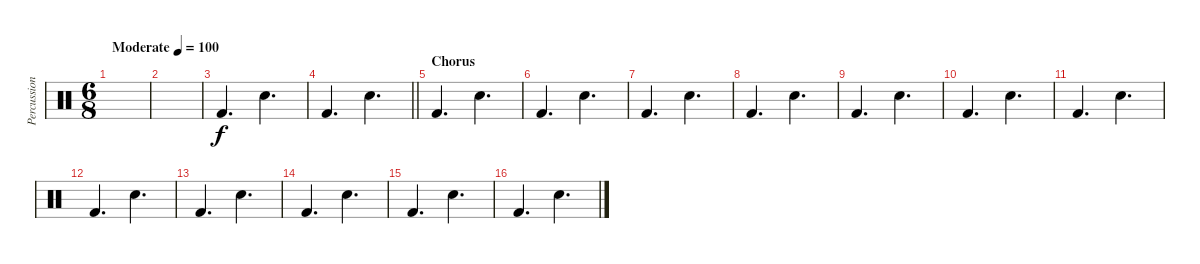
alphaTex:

\track ("Percussion" "Percussion") {instrument percussion}
\staff {score}
\articulation defaults
\ts (6 8)
\tempo (100 "Moderate")
\clef neutral
\ks c
|
|
"Kick (hit) 2".4{d} "Snare (hit) 2".4{d} |
\barLineRight lightlight "Kick (hit) 2".4{d} "Snare (hit) 2".4{d}
|
\section ("" "Chorus")
"Kick (hit) 2".4{d} "Snare (hit) 2".4{d} |
"Kick (hit) 2".4{d} "Snare (hit) 2".4{d} |
"Kick (hit) 2".4{d} "Snare (hit) 2".4{d} |
"Kick (hit) 2".4{d} "Snare (hit) 2".4{d} |
"Kick (hit) 2".4{d} "Snare (hit) 2".4{d} |
"Kick (hit) 2".4{d} "Snare (hit) 2".4{d} |
"Kick (hit) 2".4{d} "Snare (hit) 2".4{d} |
"Kick (hit) 2".4{d} "Snare (hit) 2".4{d} |
"Kick (hit) 2".4{d} "Snare (hit) 2".4{d} |
"Kick (hit) 2".4{d} "Snare (hit) 2".4{d} |
"Kick (hit) 2".4{d} "Snare (hit) 2".4{d} |
"Kick (hit) 2".4{d} "Snare (hit) 2".4{d}
